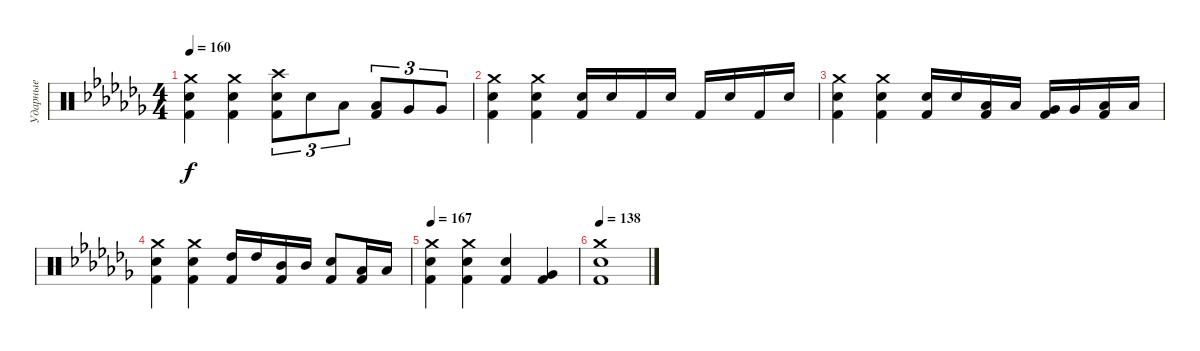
\track ("Ударные" "Ударные") {instrument percussion}
\staff {score}
\articulation defaults
\ts (4 4)
\tempo 160
\clef neutral
\ks abminor
("Crash medium (hit)" "Electric Snare (hit)" "Kick (hit) 2").4{dy f} ("Crash medium (hit)" "Electric Snare (hit)" "Kick (hit) 2").4 ("Crash high (hit)" "Electric Snare (hit)" "Kick (hit) 2").8{tu (3 2)} "Electric Snare (hit)".8{tu (3 2)} "Low Tom (hit)".8{tu (3 2)} ("Low Tom (hit)" "Kick (hit) 2").8{tu (3 2)} "Very Low Tom (hit)".8{tu (3 2)} "Very Low Tom (hit)".8{tu (3 2)} |
("Crash medium (hit)" "Electric Snare (hit)" "Kick (hit) 2").4 ("Crash medium (hit)" "Electric Snare (hit)" "Kick (hit) 2").4 ("Electric Snare (hit)" "Kick (hit) 2").16 "Electric Snare (hit)".16 "Kick (hit) 2".16 "Electric Snare (hit)".16 "Kick (hit) 2".16 "Electric Snare (hit)".16 "Kick (hit) 2".16 "Electric Snare (hit)".16 |
("Crash medium (hit)" "Electric Snare (hit)" "Kick (hit) 2").4 ("Crash medium (hit)" "Electric Snare (hit)" "Kick (hit) 2").4 ("Electric Snare (hit)" "Kick (hit) 2").16 "Electric Snare (hit)".16 ("Low Tom (hit)" "Kick (hit) 2").16 "Low Tom (hit)".16 ("Very Low Tom (hit)" "Kick (hit) 2").16 "Very Low Tom (hit)".16 ("Low Floor Tom (hit)" "Kick (hit) 2").16 "Low Floor Tom (hit)".16 |
("Crash medium (hit)" "Electric Snare (hit)" "Kick (hit) 2").4 ("Crash medium (hit)" "Electric Snare (hit)" "Kick (hit) 2").4 ("High Tom (hit)" "Kick (hit) 2").16 "High Tom (hit)".16 ("Mid Tom (hit)" "Kick (hit) 2").16 "Mid Tom (hit)".16 ("Electric Snare (hit)" "Kick (hit) 2").8 ("Low Tom (hit)" "Kick (hit) 2").16 "Low Tom (hit)".16 |
\tempo 167
("Crash medium (hit)" "Electric Snare (hit)" "Kick (hit) 2").4 ("Crash medium (hit)" "Electric Snare (hit)" "Kick (hit) 2").4 ("Electric Snare (hit)" "Kick (hit) 2").4 ("Very Low Tom (hit)" "Kick (hit) 2").4 |
\tempo 138
("Crash medium (hit)" "Electric Snare (hit)" "Kick (hit) 2").1
